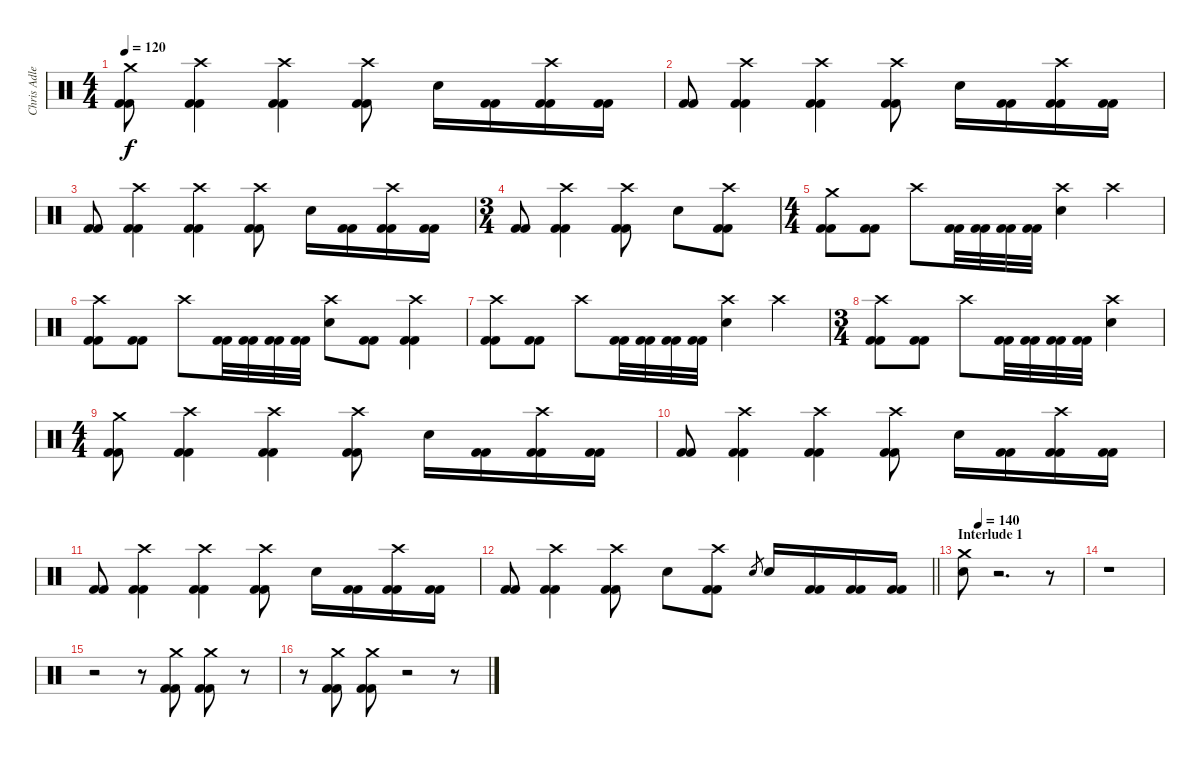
\track ("Chris Adler" "Chris Adle") {instrument percussion}
\staff {score}
\articulation defaults
\ts (4 4)
\tempo 120
\clef neutral
\ks c
("Crash medium (hit)" "Kick (hit) 2" "Kick (hit) 2").8{dy f} ("Crash high (hit)" "Kick (hit) 2" "Kick (hit) 2").4 ("Crash high (hit)" "Kick (hit) 2" "Kick (hit) 2").4 ("Crash high (hit)" "Kick (hit) 2" "Kick (hit) 2").8 "Electric Snare (hit)".16 ("Kick (hit) 2" "Kick (hit) 2").16 ("Crash high (hit)" "Kick (hit) 2" "Kick (hit) 2").16 ("Kick (hit) 2" "Kick (hit) 2").16 |
("Kick (hit) 2" "Kick (hit) 2").8 ("Crash high (hit)" "Kick (hit) 2" "Kick (hit) 2").4 ("Crash high (hit)" "Kick (hit) 2" "Kick (hit) 2").4 ("Crash high (hit)" "Kick (hit) 2" "Kick (hit) 2").8 "Electric Snare (hit)".16 ("Kick (hit) 2" "Kick (hit) 2").16 ("Crash high (hit)" "Kick (hit) 2" "Kick (hit) 2").16 ("Kick (hit) 2" "Kick (hit) 2").16 |
("Kick (hit) 2" "Kick (hit) 2").8 ("Crash high (hit)" "Kick (hit) 2" "Kick (hit) 2").4 ("Crash high (hit)" "Kick (hit) 2" "Kick (hit) 2").4 ("Crash high (hit)" "Kick (hit) 2" "Kick (hit) 2").8 "Electric Snare (hit)".16 ("Kick (hit) 2" "Kick (hit) 2").16 ("Crash high (hit)" "Kick (hit) 2" "Kick (hit) 2").16 ("Kick (hit) 2" "Kick (hit) 2").16 |
\ts (3 4)
("Kick (hit) 2" "Kick (hit) 2").8 ("Crash high (hit)" "Kick (hit) 2" "Kick (hit) 2").4 ("Crash high (hit)" "Kick (hit) 2" "Kick (hit) 2").8 "Electric Snare (hit)".8 ("Crash high (hit)" "Kick (hit) 2" "Kick (hit) 2").8 |
\ts (4 4)
("Crash medium (hit)" "Kick (hit) 2" "Kick (hit) 2").8 ("Kick (hit) 2" "Kick (hit) 2").8 "Crash high (hit)".8 ("Kick (hit) 2" "Kick (hit) 2").32 ("Kick (hit) 2" "Kick (hit) 2").32 ("Kick (hit) 2" "Kick (hit) 2").32 ("Kick (hit) 2" "Kick (hit) 2").32 ("Crash high (hit)" "Electric Snare (hit)").4 "Crash high (hit)".4 |
("Crash high (hit)" "Kick (hit) 2" "Kick (hit) 2").8 ("Kick (hit) 2" "Kick (hit) 2").8 "Crash high (hit)".8 ("Kick (hit) 2" "Kick (hit) 2").32 ("Kick (hit) 2" "Kick (hit) 2").32 ("Kick (hit) 2" "Kick (hit) 2").32 ("Kick (hit) 2" "Kick (hit) 2").32 ("Crash high (hit)" "Electric Snare (hit)").8 ("Kick (hit) 2" "Kick (hit) 2").8 ("Crash high (hit)" "Kick (hit) 2" "Kick (hit) 2").4 |
("Crash high (hit)" "Kick (hit) 2" "Kick (hit) 2").8 ("Kick (hit) 2" "Kick (hit) 2").8 "Crash high (hit)".8 ("Kick (hit) 2" "Kick (hit) 2").32 ("Kick (hit) 2" "Kick (hit) 2").32 ("Kick (hit) 2" "Kick (hit) 2").32 ("Kick (hit) 2" "Kick (hit) 2").32 ("Crash high (hit)" "Electric Snare (hit)").4 "Crash high (hit)".4 |
\ts (3 4)
("Crash high (hit)" "Kick (hit) 2" "Kick (hit) 2").8 ("Kick (hit) 2" "Kick (hit) 2").8 "Crash high (hit)".8 ("Kick (hit) 2" "Kick (hit) 2").32 ("Kick (hit) 2" "Kick (hit) 2").32 ("Kick (hit) 2" "Kick (hit) 2").32 ("Kick (hit) 2" "Kick (hit) 2").32 ("Crash high (hit)" "Electric Snare (hit)").4 |
\ts (4 4)
("Crash medium (hit)" "Kick (hit) 2" "Kick (hit) 2").8 ("Crash high (hit)" "Kick (hit) 2" "Kick (hit) 2").4 ("Crash high (hit)" "Kick (hit) 2" "Kick (hit) 2").4 ("Crash high (hit)" "Kick (hit) 2" "Kick (hit) 2").8 "Electric Snare (hit)".16 ("Kick (hit) 2" "Kick (hit) 2").16 ("Crash high (hit)" "Kick (hit) 2" "Kick (hit) 2").16 ("Kick (hit) 2" "Kick (hit) 2").16 |
("Kick (hit) 2" "Kick (hit) 2").8 ("Crash high (hit)" "Kick (hit) 2" "Kick (hit) 2").4 ("Crash high (hit)" "Kick (hit) 2" "Kick (hit) 2").4 ("Crash high (hit)" "Kick (hit) 2" "Kick (hit) 2").8 "Electric Snare (hit)".16 ("Kick (hit) 2" "Kick (hit) 2").16 ("Crash high (hit)" "Kick (hit) 2" "Kick (hit) 2").16 ("Kick (hit) 2" "Kick (hit) 2").16 |
("Kick (hit) 2" "Kick (hit) 2").8 ("Crash high (hit)" "Kick (hit) 2" "Kick (hit) 2").4 ("Crash high (hit)" "Kick (hit) 2" "Kick (hit) 2").4 ("Crash high (hit)" "Kick (hit) 2" "Kick (hit) 2").8 "Electric Snare (hit)".16 ("Kick (hit) 2" "Kick (hit) 2").16 ("Crash high (hit)" "Kick (hit) 2" "Kick (hit) 2").16 ("Kick (hit) 2" "Kick (hit) 2").16 |
\barLineRight lightlight
("Kick (hit) 2" "Kick (hit) 2").8 ("Crash high (hit)" "Kick (hit) 2" "Kick (hit) 2").4 ("Crash high (hit)" "Kick (hit) 2" "Kick (hit) 2").8 "Electric Snare (hit)".8 ("Crash high (hit)" "Kick (hit) 2" "Kick (hit) 2").8 "Electric Snare (hit)".8{gr} "Electric Snare (hit)".16 ("Kick (hit) 2" "Kick (hit) 2").16 ("Kick (hit) 2" "Kick (hit) 2").16 ("Kick (hit) 2" "Kick (hit) 2").16 |
\section ("" "Interlude 1")
\tempo (140 0.125)
("Crash medium (hit)" "Electric Snare (hit)").8 r.2{d volume 0} r.8 |
r.1 |
r.2 r.8 ("Crash medium (hit)" "Kick (hit) 2" "Kick (hit) 2").8{volume 13} ("Crash medium (hit)" "Kick (hit) 2" "Kick (hit) 2").8 r.8{volume 0} |
r.8 ("Crash medium (hit)" "Kick (hit) 2" "Kick (hit) 2").8{volume 13} ("Crash medium (hit)" "Kick (hit) 2" "Kick (hit) 2").8 r.2{volume 0} r.8
